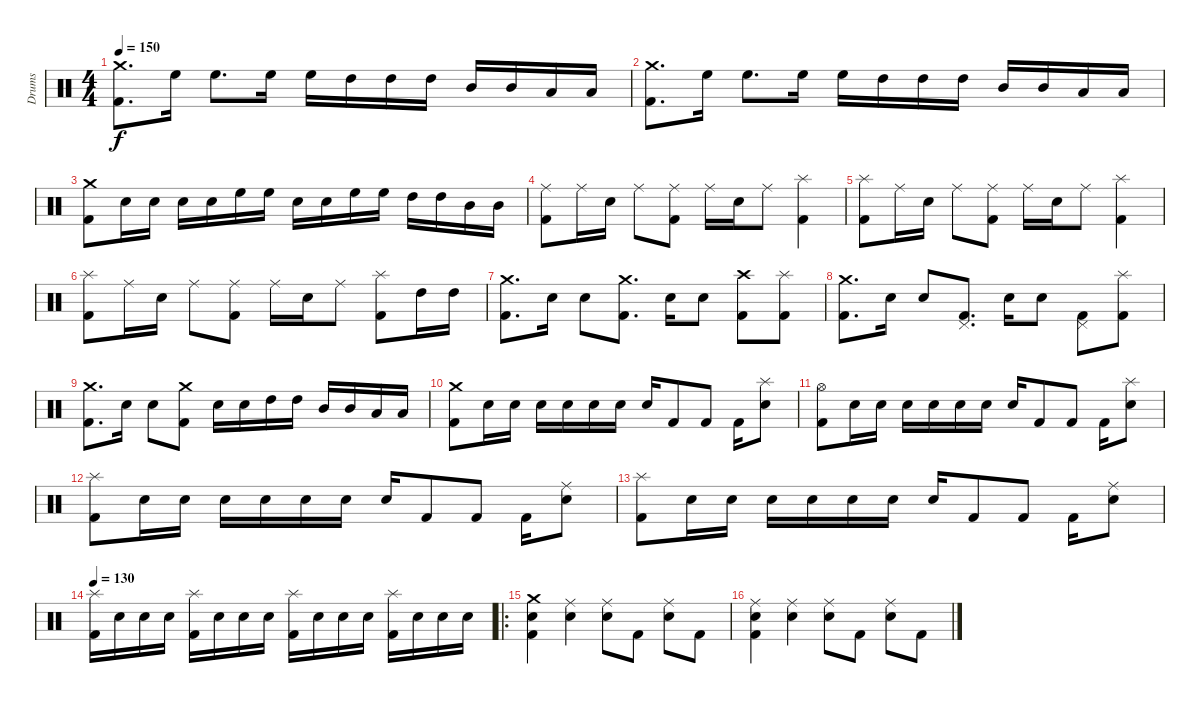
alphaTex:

\track ("Drums" "Drums") {instrument percussion}
\staff {score}
\articulation defaults
\ts (4 4)
\tempo 150
\clef neutral
\ks c
("Crash medium (hit)" "Kick (hit) 2").8{d dy f} "High Floor Tom (hit)".16 "High Floor Tom (hit)".8{d} "High Floor Tom (hit)".16 "High Floor Tom (hit)".16 "High Tom (hit)".16 "High Tom (hit)".16 "High Tom (hit)".16 "Mid Tom (hit)".16 "Mid Tom (hit)".16 "Low Tom (hit)".16 "Low Tom (hit)".16 |
("Crash medium (hit)" "Kick (hit) 2").8{d} "High Floor Tom (hit)".16 "High Floor Tom (hit)".8{d} "High Floor Tom (hit)".16 "High Floor Tom (hit)".16 "High Tom (hit)".16 "High Tom (hit)".16 "High Tom (hit)".16 "Mid Tom (hit)".16 "Mid Tom (hit)".16 "Low Tom (hit)".16 "Low Tom (hit)".16 |
("Crash medium (hit)" "Kick (hit) 2").8 "Snare (hit) 2".16 "Snare (hit) 2".16 "Snare (hit) 2".16 "Snare (hit) 2".16 "High Floor Tom (hit)".16 "High Floor Tom (hit)".16 "Snare (hit) 2".16 "Snare (hit) 2".16 "High Floor Tom (hit)".16 "High Floor Tom (hit)".16 "High Tom (hit)".16 "High Tom (hit)".16 "Mid Tom (hit)".16 "Mid Tom (hit)".16 |
("Ride (middle)" "Kick (hit) 2").8 "Ride (middle)".16 "Snare (hit) 2".16 "Ride (middle)".8 ("Ride (middle)" "Kick (hit) 2").8 "Ride (middle)".16 "Snare (hit) 2".16 "Ride (middle)".8 ("Splash (hit)" "Kick (hit) 2").4 |
("Splash (hit)" "Kick (hit) 2").8 "Ride (middle)".16 "Snare (hit) 2".16 "Ride (middle)".8 ("Ride (middle)" "Kick (hit) 2").8 "Ride (middle)".16 "Snare (hit) 2".16 "Ride (middle)".8 ("Splash (hit)" "Kick (hit) 2").4 |
("Splash (hit)" "Kick (hit) 2").8 "Ride (middle)".16 "Snare (hit) 2".16 "Ride (middle)".8 ("Ride (middle)" "Kick (hit) 2").8 "Ride (middle)".16 "Snare (hit) 2".16 "Ride (middle)".8 ("Splash (hit)" "Kick (hit) 2").8 "High Tom (hit)".16 "High Tom (hit)".16 |
("Crash medium (hit)" "Kick (hit) 2").8{d} "Snare (hit) 2".16 "Snare (hit) 2".8 ("Crash medium (hit)" "Kick (hit) 2").8{d} "Snare (hit) 2".16 "Snare (hit) 2".8 ("Crash high (hit)" "Kick (hit) 2").8 ("Splash (hit)" "Kick (hit) 2").8 |
("Crash medium (hit)" "Kick (hit) 2").8{d} "Snare (hit) 2".16 "Snare (hit) 2".8 ("Pedal Hi-Hat (hit)" "Kick (hit) 2").8{d} "Snare (hit) 2".16 "Snare (hit) 2".8 ("Pedal Hi-Hat (hit)" "Kick (hit) 2").8 ("Splash (hit)" "Kick (hit) 2").8 |
("Crash medium (hit)" "Kick (hit) 2").8{d} "Snare (hit) 2".16 "Snare (hit) 2".8 ("Crash medium (hit)" "Kick (hit) 2").8 "Snare (hit) 2".16 "Snare (hit) 2".16 "High Tom (hit)".16 "High Tom (hit)".16 "Mid Tom (hit)".16 "Mid Tom (hit)".16 "Low Tom (hit)".16 "Low Tom (hit)".16 |
("Crash medium (hit)" "Kick (hit) 2").8 "Snare (hit) 2".16 "Snare (hit) 2".16 "Snare (hit) 2".16 "Snare (hit) 2".16 "Snare (hit) 2".16 "Snare (hit) 2".16 "Snare (hit) 2".16 "Kick (hit) 2".8 "Kick (hit) 2".8 "Kick (hit) 2".16 ("Splash (hit)" "Snare (hit) 2").8 |
("Hi-Hat (open)" "Kick (hit) 2").8 "Snare (hit) 2".16 "Snare (hit) 2".16 "Snare (hit) 2".16 "Snare (hit) 2".16 "Snare (hit) 2".16 "Snare (hit) 2".16 "Snare (hit) 2".16 "Kick (hit) 2".8 "Kick (hit) 2".8 "Kick (hit) 2".16 ("Splash (hit)" "Snare (hit) 2").8 |
("Splash (hit)" "Kick (hit) 2").8 "Snare (hit) 2".16 "Snare (hit) 2".16 "Snare (hit) 2".16 "Snare (hit) 2".16 "Snare (hit) 2".16 "Snare (hit) 2".16 "Snare (hit) 2".16 "Kick (hit) 2".8 "Kick (hit) 2".8 "Kick (hit) 2".16 ("Ride (middle)" "Snare (hit) 2").8 |
("Splash (hit)" "Kick (hit) 2").8 "Snare (hit) 2".16 "Snare (hit) 2".16 "Snare (hit) 2".16 "Snare (hit) 2".16 "Snare (hit) 2".16 "Snare (hit) 2".16 "Snare (hit) 2".16 "Kick (hit) 2".8 "Kick (hit) 2".8 "Kick (hit) 2".16 ("Ride (middle)" "Snare (hit) 2").8 |
\tempo 130
("Splash (hit)" "Kick (hit) 2").16 "Snare (hit) 2".16 "Snare (hit) 2".16 "Snare (hit) 2".16 ("Splash (hit)" "Kick (hit) 2").16 "Snare (hit) 2".16 "Snare (hit) 2".16 "Snare (hit) 2".16 ("Splash (hit)" "Kick (hit) 2").16 "Snare (hit) 2".16 "Snare (hit) 2".16 "Snare (hit) 2".16 ("Splash (hit)" "Kick (hit) 2").16 "Snare (hit) 2".16 "Snare (hit) 2".16 "Snare (hit) 2".16 |
\ro
("Crash medium (hit)" "Snare (hit) 2" "Kick (hit) 2").4 ("Ride (middle)" "Snare (hit) 2").4 ("Ride (middle)" "Snare (hit) 2").8 "Kick (hit) 2".8 ("Ride (middle)" "Snare (hit) 2").8 "Kick (hit) 2".8 |
("Ride (middle)" "Snare (hit) 2" "Kick (hit) 2").4 ("Ride (middle)" "Snare (hit) 2").4 ("Ride (middle)" "Snare (hit) 2").8 "Kick (hit) 2".8 ("Ride (middle)" "Snare (hit) 2").8 "Kick (hit) 2".8
